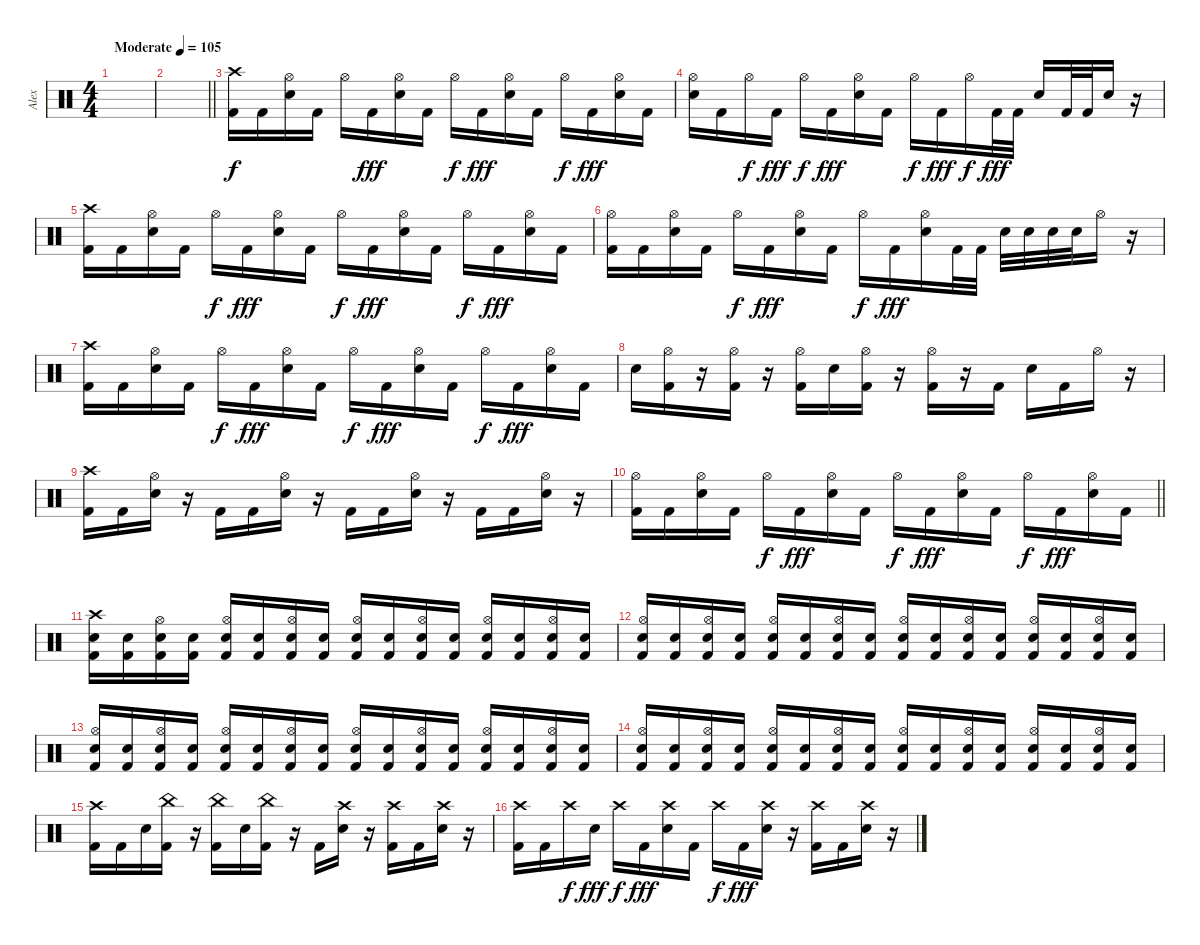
\track ("Alex" "Alex") {instrument percussion}
\staff {score}
\articulation defaults
\ts (4 4)
\tempo (105 "Moderate")
\clef neutral
\ks c
|
\barLineRight lightlight
|
\section ("" "")
("Crash high (hit)" "Kick (hit) 2").16 "Kick (hit) 2".16 ("Hi-Hat (open)" "Electric Snare (hit)").16 "Kick (hit) 2".16 "Hi-Hat (open)".16{dy f} "Kick (hit) 2".16{dy fff} ("Hi-Hat (open)" "Electric Snare (hit)").16 "Kick (hit) 2".16 "Hi-Hat (open)".16{dy f} "Kick (hit) 2".16{dy fff} ("Hi-Hat (open)" "Electric Snare (hit)").16 "Kick (hit) 2".16 "Hi-Hat (open)".16{dy f} "Kick (hit) 2".16{dy fff} ("Hi-Hat (open)" "Electric Snare (hit)").16 "Kick (hit) 2".16 |
("Hi-Hat (open)" "Electric Snare (hit)").16 "Kick (hit) 2".16 "Hi-Hat (open)".16{dy f} "Kick (hit) 2".16{dy fff} "Hi-Hat (open)".16{dy f} "Kick (hit) 2".16{dy fff} ("Hi-Hat (open)" "Electric Snare (hit)").16 "Kick (hit) 2".16 "Hi-Hat (open)".16{dy f} "Kick (hit) 2".16{dy fff} "Hi-Hat (open)".16{dy f} "Kick (hit) 2".32{dy fff} "Kick (hit) 2".32 "Electric Snare (hit)".16 "Kick (hit) 2".32 "Kick (hit) 2".32 "Electric Snare (hit)".16 r.16 |
("Crash high (hit)" "Kick (hit) 2").16 "Kick (hit) 2".16 ("Hi-Hat (open)" "Electric Snare (hit)").16 "Kick (hit) 2".16 "Hi-Hat (open)".16{dy f} "Kick (hit) 2".16{dy fff} ("Hi-Hat (open)" "Electric Snare (hit)").16 "Kick (hit) 2".16 "Hi-Hat (open)".16{dy f} "Kick (hit) 2".16{dy fff} ("Hi-Hat (open)" "Electric Snare (hit)").16 "Kick (hit) 2".16 "Hi-Hat (open)".16{dy f} "Kick (hit) 2".16{dy fff} ("Hi-Hat (open)" "Electric Snare (hit)").16 "Kick (hit) 2".16 |
("Hi-Hat (open)" "Kick (hit) 2").16 "Kick (hit) 2".16 ("Hi-Hat (open)" "Electric Snare (hit)").16 "Kick (hit) 2".16 "Hi-Hat (open)".16{dy f} "Kick (hit) 2".16{dy fff} ("Hi-Hat (open)" "Electric Snare (hit)").16 "Kick (hit) 2".16 "Hi-Hat (open)".16{dy f} "Kick (hit) 2".16{dy fff} ("Hi-Hat (open)" "Electric Snare (hit)").16 "Kick (hit) 2".32 "Kick (hit) 2".32 "Electric Snare (hit)".32 "Electric Snare (hit)".32 "Electric Snare (hit)".32 "Electric Snare (hit)".32 "Hi-Hat (open)".16{balance 4} r.16 |
("Crash high (hit)" "Kick (hit) 2").16{balance 8} "Kick (hit) 2".16 ("Hi-Hat (open)" "Electric Snare (hit)").16 "Kick (hit) 2".16 "Hi-Hat (open)".16{dy f} "Kick (hit) 2".16{dy fff} ("Hi-Hat (open)" "Electric Snare (hit)").16 "Kick (hit) 2".16 "Hi-Hat (open)".16{dy f} "Kick (hit) 2".16{dy fff} ("Hi-Hat (open)" "Electric Snare (hit)").16 "Kick (hit) 2".16 "Hi-Hat (open)".16{dy f} "Kick (hit) 2".16{dy fff} ("Hi-Hat (open)" "Electric Snare (hit)").16 "Kick (hit) 2".16 |
"Electric Snare (hit)".16 ("Hi-Hat (open)" "Kick (hit) 2").16 r.16 ("Hi-Hat (open)" "Kick (hit) 2").16 r.16 ("Hi-Hat (open)" "Kick (hit) 2").16 "Electric Snare (hit)".16 ("Hi-Hat (open)" "Kick (hit) 2").16 r.16 ("Hi-Hat (open)" "Kick (hit) 2").16 r.16 "Kick (hit) 2".16 "Electric Snare (hit)".16 "Kick (hit) 2".16 "Hi-Hat (open)".16{balance 4} r.16 |
("Crash high (hit)" "Kick (hit) 2").16{balance 8} "Kick (hit) 2".16 ("Hi-Hat (open)" "Electric Snare (hit)").16 r.16 "Kick (hit) 2".16 "Kick (hit) 2".16 ("Hi-Hat (open)" "Electric Snare (hit)").16 r.16 "Kick (hit) 2".16 "Kick (hit) 2".16 ("Hi-Hat (open)" "Electric Snare (hit)").16 r.16 "Kick (hit) 2".16 "Kick (hit) 2".16 ("Hi-Hat (open)" "Electric Snare (hit)").16 r.16 |
\barLineRight lightlight
("Hi-Hat (open)" "Kick (hit) 2").16 "Kick (hit) 2".16 ("Hi-Hat (open)" "Electric Snare (hit)").16 "Kick (hit) 2".16 "Hi-Hat (open)".16{dy f} "Kick (hit) 2".16{dy fff} ("Hi-Hat (open)" "Electric Snare (hit)").16 "Kick (hit) 2".16 "Hi-Hat (open)".16{dy f} "Kick (hit) 2".16{dy fff} ("Hi-Hat (open)" "Electric Snare (hit)").16 "Kick (hit) 2".16 "Hi-Hat (open)".16{dy f} "Kick (hit) 2".16{dy fff} ("Hi-Hat (open)" "Electric Snare (hit)").16 "Kick (hit) 2".16 |
\section ("" "")
("Crash high (hit)" "Electric Snare (hit)" "Kick (hit) 2").16 ("Electric Snare (hit)" "Kick (hit) 2").16 ("Hi-Hat (open)" "Electric Snare (hit)" "Kick (hit) 2").16 ("Electric Snare (hit)" "Kick (hit) 2").16 ("Hi-Hat (open)" "Electric Snare (hit)" "Kick (hit) 2").16 ("Electric Snare (hit)" "Kick (hit) 2").16 ("Hi-Hat (open)" "Electric Snare (hit)" "Kick (hit) 2").16 ("Electric Snare (hit)" "Kick (hit) 2").16 ("Hi-Hat (open)" "Electric Snare (hit)" "Kick (hit) 2").16 ("Electric Snare (hit)" "Kick (hit) 2").16 ("Hi-Hat (open)" "Electric Snare (hit)" "Kick (hit) 2").16 ("Electric Snare (hit)" "Kick (hit) 2").16 ("Hi-Hat (open)" "Electric Snare (hit)" "Kick (hit) 2").16 ("Electric Snare (hit)" "Kick (hit) 2").16 ("Hi-Hat (open)" "Electric Snare (hit)" "Kick (hit) 2").16 ("Electric Snare (hit)" "Kick (hit) 2").16 |
("Hi-Hat (open)" "Electric Snare (hit)" "Kick (hit) 2").16 ("Electric Snare (hit)" "Kick (hit) 2").16 ("Hi-Hat (open)" "Electric Snare (hit)" "Kick (hit) 2").16 ("Electric Snare (hit)" "Kick (hit) 2").16 ("Hi-Hat (open)" "Electric Snare (hit)" "Kick (hit) 2").16 ("Electric Snare (hit)" "Kick (hit) 2").16 ("Hi-Hat (open)" "Electric Snare (hit)" "Kick (hit) 2").16 ("Electric Snare (hit)" "Kick (hit) 2").16 ("Hi-Hat (open)" "Electric Snare (hit)" "Kick (hit) 2").16 ("Electric Snare (hit)" "Kick (hit) 2").16 ("Hi-Hat (open)" "Electric Snare (hit)" "Kick (hit) 2").16 ("Electric Snare (hit)" "Kick (hit) 2").16 ("Hi-Hat (open)" "Electric Snare (hit)" "Kick (hit) 2").16 ("Electric Snare (hit)" "Kick (hit) 2").16 ("Hi-Hat (open)" "Electric Snare (hit)" "Kick (hit) 2").16 ("Electric Snare (hit)" "Kick (hit) 2").16 |
("Hi-Hat (open)" "Electric Snare (hit)" "Kick (hit) 2").16 ("Electric Snare (hit)" "Kick (hit) 2").16 ("Hi-Hat (open)" "Electric Snare (hit)" "Kick (hit) 2").16 ("Electric Snare (hit)" "Kick (hit) 2").16 ("Hi-Hat (open)" "Electric Snare (hit)" "Kick (hit) 2").16 ("Electric Snare (hit)" "Kick (hit) 2").16 ("Hi-Hat (open)" "Electric Snare (hit)" "Kick (hit) 2").16 ("Electric Snare (hit)" "Kick (hit) 2").16 ("Hi-Hat (open)" "Electric Snare (hit)" "Kick (hit) 2").16 ("Electric Snare (hit)" "Kick (hit) 2").16 ("Hi-Hat (open)" "Electric Snare (hit)" "Kick (hit) 2").16 ("Electric Snare (hit)" "Kick (hit) 2").16 ("Hi-Hat (open)" "Electric Snare (hit)" "Kick (hit) 2").16 ("Electric Snare (hit)" "Kick (hit) 2").16 ("Hi-Hat (open)" "Electric Snare (hit)" "Kick (hit) 2").16 ("Electric Snare (hit)" "Kick (hit) 2").16 |
("Hi-Hat (open)" "Electric Snare (hit)" "Kick (hit) 2").16 ("Electric Snare (hit)" "Kick (hit) 2").16 ("Hi-Hat (open)" "Electric Snare (hit)" "Kick (hit) 2").16 ("Electric Snare (hit)" "Kick (hit) 2").16 ("Hi-Hat (open)" "Electric Snare (hit)" "Kick (hit) 2").16 ("Electric Snare (hit)" "Kick (hit) 2").16 ("Hi-Hat (open)" "Electric Snare (hit)" "Kick (hit) 2").16 ("Electric Snare (hit)" "Kick (hit) 2").16 ("Hi-Hat (open)" "Electric Snare (hit)" "Kick (hit) 2").16 ("Electric Snare (hit)" "Kick (hit) 2").16 ("Hi-Hat (open)" "Electric Snare (hit)" "Kick (hit) 2").16 ("Electric Snare (hit)" "Kick (hit) 2").16 ("Hi-Hat (open)" "Electric Snare (hit)" "Kick (hit) 2").16 ("Electric Snare (hit)" "Kick (hit) 2").16 ("Hi-Hat (open)" "Electric Snare (hit)" "Kick (hit) 2").16 ("Electric Snare (hit)" "Kick (hit) 2").16 |
("Crash high (hit)" "Kick (hit) 2").16 "Kick (hit) 2".16 "Electric Snare (hit)".16 ("China (hit)" "Kick (hit) 2").16 r.16 ("China (hit)" "Kick (hit) 2").16 "Electric Snare (hit)".16 ("China (hit)" "Kick (hit) 2").16 r.16 "Kick (hit) 2".16 ("Crash high (hit)" "Electric Snare (hit)").16 r.16 ("Crash high (hit)" "Kick (hit) 2").16 "Kick (hit) 2".16 ("Crash high (hit)" "Electric Snare (hit)").16 r.16 |
("Crash high (hit)" "Kick (hit) 2").16 "Kick (hit) 2".16 "Crash high (hit)".16{dy f} "Electric Snare (hit)".16{dy fff} "Crash high (hit)".16{dy f} "Kick (hit) 2".16{dy fff} ("Crash high (hit)" "Electric Snare (hit)").16 "Kick (hit) 2".16 "Crash high (hit)".16{dy f} "Kick (hit) 2".16{dy fff} ("Crash high (hit)" "Electric Snare (hit)").16 r.16 ("Crash high (hit)" "Kick (hit) 2").16 "Kick (hit) 2".16 ("Crash high (hit)" "Electric Snare (hit)").16 r.16
